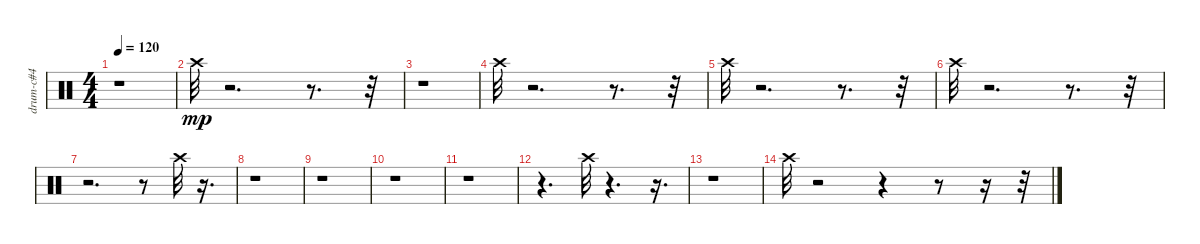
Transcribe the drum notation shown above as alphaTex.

\track ("drum-c#4" "drum-c#4") {instrument percussion}
\staff {score}
\articulation defaults
\ts (4 4)
\tempo 120
\clef neutral
\ks c
r.1{dy mp} |
"Crash high (hit)".32 r.2{d} r.8{d} r.32 |
r.1 |
"Crash high (hit)".32 r.2{d} r.8{d} r.32 |
"Crash high (hit)".32 r.2{d} r.8{d} r.32 |
"Crash high (hit)".32 r.2{d} r.8{d} r.32 |
r.2{d} r.8 "Crash high (hit)".32 r.16{d} |
r.1 |
r.1 |
r.1 |
r.1 |
r.4{d} "Crash high (hit)".32 r.4{d} r.16{d} |
r.1 |
"Crash high (hit)".32 r.2 r.4 r.8 r.16 r.32
